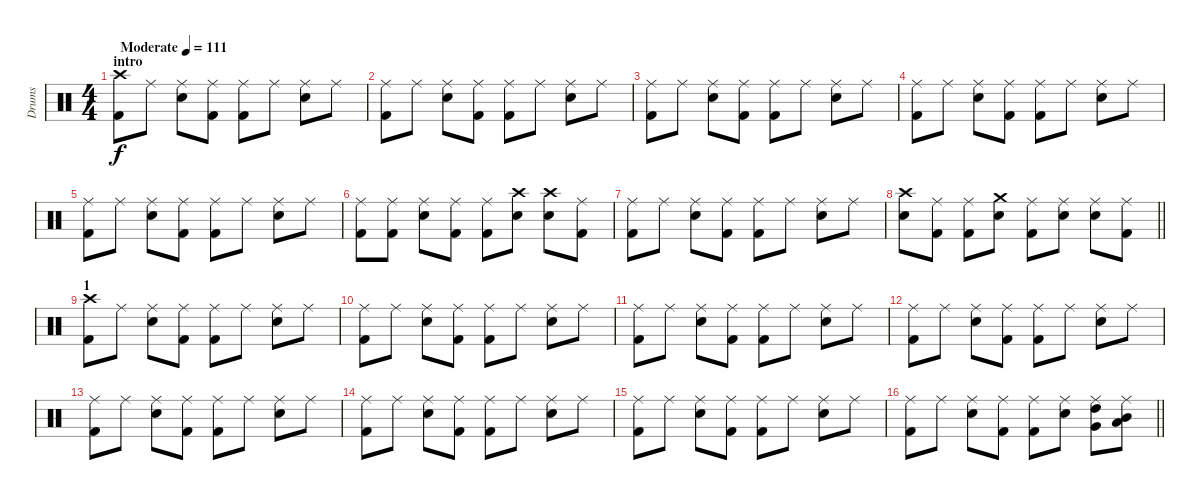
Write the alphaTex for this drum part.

\track ("Drums" "Drums") {instrument percussion}
\staff {score}
\articulation defaults
\ts (4 4)
\section ("" "intro")
\tempo (111 "Moderate")
\clef neutral
\ks c
("Crash high (hit)" "Kick (hit) 2").8{dy f} "Ride (middle)".8 ("Ride (middle)" "Snare (hit) 2").8 ("Ride (middle)" "Kick (hit) 2").8 ("Ride (middle)" "Kick (hit) 2").8 "Ride (middle)".8 ("Ride (middle)" "Snare (hit) 2").8 "Ride (middle)".8 |
("Ride (middle)" "Kick (hit) 2").8 "Ride (middle)".8 ("Ride (middle)" "Snare (hit) 2").8 ("Ride (middle)" "Kick (hit) 2").8 ("Ride (middle)" "Kick (hit) 2").8 "Ride (middle)".8 ("Ride (middle)" "Snare (hit) 2").8 "Ride (middle)".8 |
("Ride (middle)" "Kick (hit) 2").8 "Ride (middle)".8 ("Ride (middle)" "Snare (hit) 2").8 ("Ride (middle)" "Kick (hit) 2").8 ("Ride (middle)" "Kick (hit) 2").8 "Ride (middle)".8 ("Ride (middle)" "Snare (hit) 2").8 "Ride (middle)".8 |
("Ride (middle)" "Kick (hit) 2").8 "Ride (middle)".8 ("Ride (middle)" "Snare (hit) 2").8 ("Ride (middle)" "Kick (hit) 2").8 ("Ride (middle)" "Kick (hit) 2").8 "Ride (middle)".8 ("Ride (middle)" "Snare (hit) 2").8 "Ride (middle)".8 |
("Ride (middle)" "Kick (hit) 2").8 "Ride (middle)".8 ("Ride (middle)" "Snare (hit) 2").8 ("Ride (middle)" "Kick (hit) 2").8 ("Ride (middle)" "Kick (hit) 2").8 "Ride (middle)".8 ("Ride (middle)" "Snare (hit) 2").8 "Ride (middle)".8 |
("Ride (middle)" "Kick (hit) 2").8 ("Ride (middle)" "Kick (hit) 2").8 ("Ride (middle)" "Snare (hit) 2").8 ("Ride (middle)" "Kick (hit) 2").8 ("Ride (middle)" "Kick (hit) 2").8 ("Crash high (hit)" "Snare (hit) 2").8 ("Crash high (hit)" "Snare (hit) 2").8 ("Ride (middle)" "Kick (hit) 2").8 |
("Ride (middle)" "Kick (hit) 2").8 "Ride (middle)".8 ("Ride (middle)" "Snare (hit) 2").8 ("Ride (middle)" "Kick (hit) 2").8 ("Ride (middle)" "Kick (hit) 2").8 "Ride (middle)".8 ("Ride (middle)" "Snare (hit) 2").8 "Ride (middle)".8 |
\barLineRight lightlight
("Crash high (hit)" "Snare (hit) 2").8 ("Ride (middle)" "Kick (hit) 2").8 ("Ride (middle)" "Kick (hit) 2").8 ("Crash medium (hit)" "Snare (hit) 2").8 ("Ride (middle)" "Kick (hit) 2").8 ("Ride (middle)" "Snare (hit) 2").8 ("Ride (middle)" "Snare (hit) 2").8 ("Ride (middle)" "Kick (hit) 2").8 |
\section ("" "1")
("Crash high (hit)" "Kick (hit) 2").8 "Ride (middle)".8 ("Ride (middle)" "Snare (hit) 2").8 ("Ride (middle)" "Kick (hit) 2").8 ("Ride (middle)" "Kick (hit) 2").8 "Ride (middle)".8 ("Ride (middle)" "Snare (hit) 2").8 "Ride (middle)".8 |
("Ride (middle)" "Kick (hit) 2").8 "Ride (middle)".8 ("Ride (middle)" "Snare (hit) 2").8 ("Ride (middle)" "Kick (hit) 2").8 ("Ride (middle)" "Kick (hit) 2").8 "Ride (middle)".8 ("Ride (middle)" "Snare (hit) 2").8 "Ride (middle)".8 |
("Ride (middle)" "Kick (hit) 2").8 "Ride (middle)".8 ("Ride (middle)" "Snare (hit) 2").8 ("Ride (middle)" "Kick (hit) 2").8 ("Ride (middle)" "Kick (hit) 2").8 "Ride (middle)".8 ("Ride (middle)" "Snare (hit) 2").8 "Ride (middle)".8 |
("Ride (middle)" "Kick (hit) 2").8 "Ride (middle)".8 ("Ride (middle)" "Snare (hit) 2").8 ("Ride (middle)" "Kick (hit) 2").8 ("Ride (middle)" "Kick (hit) 2").8 "Ride (middle)".8 ("Ride (middle)" "Snare (hit) 2").8 "Ride (middle)".8 |
("Ride (middle)" "Kick (hit) 2").8 "Ride (middle)".8 ("Ride (middle)" "Snare (hit) 2").8 ("Ride (middle)" "Kick (hit) 2").8 ("Ride (middle)" "Kick (hit) 2").8 "Ride (middle)".8 ("Ride (middle)" "Snare (hit) 2").8 "Ride (middle)".8 |
("Ride (middle)" "Kick (hit) 2").8 "Ride (middle)".8 ("Ride (middle)" "Snare (hit) 2").8 ("Ride (middle)" "Kick (hit) 2").8 ("Ride (middle)" "Kick (hit) 2").8 "Ride (middle)".8 ("Ride (middle)" "Snare (hit) 2").8 "Ride (middle)".8 |
("Ride (middle)" "Kick (hit) 2").8 "Ride (middle)".8 ("Ride (middle)" "Snare (hit) 2").8 ("Ride (middle)" "Kick (hit) 2").8 ("Ride (middle)" "Kick (hit) 2").8 "Ride (middle)".8 ("Ride (middle)" "Snare (hit) 2").8 "Ride (middle)".8 |
\barLineRight lightlight
("Ride (middle)" "Kick (hit) 2").8 "Ride (middle)".8 ("Ride (middle)" "Snare (hit) 2").8 ("Ride (middle)" "Kick (hit) 2").8 ("Ride (middle)" "Kick (hit) 2").8 ("Ride (middle)" "Snare (hit) 2").8 ("Ride (middle)" "High Tom (hit)" "Very Low Tom (hit)").8 ("Ride (middle)" "Mid Tom (hit)" "Low Floor Tom (hit)").8
